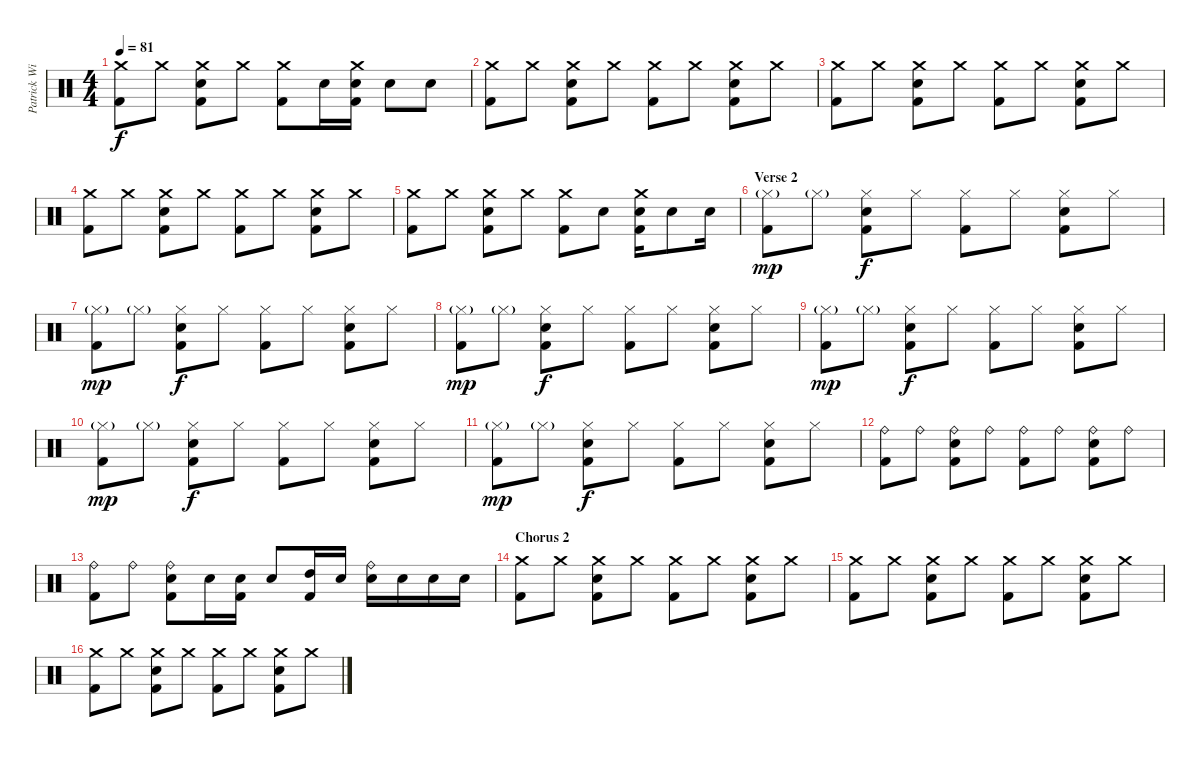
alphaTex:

\track ("Patrick Wilson" "Patrick Wi") {instrument percussion}
\staff {score}
\articulation defaults
\ts (4 4)
\tempo 81
\clef neutral
\ks c
("Crash medium (hit)" "Kick (hit) 2").8{dy f} "Crash medium (hit)".8 ("Crash medium (hit)" "Electric Snare (hit)" "Kick (hit) 2").8 "Crash medium (hit)".8 ("Crash medium (hit)" "Kick (hit) 2").8 "Electric Snare (hit)".16 ("Crash medium (hit)" "Electric Snare (hit)" "Kick (hit) 2").16 "Electric Snare (hit)".8 "Electric Snare (hit)".8 |
("Crash medium (hit)" "Kick (hit) 2").8 "Crash medium (hit)".8 ("Crash medium (hit)" "Electric Snare (hit)" "Kick (hit) 2").8 "Crash medium (hit)".8 ("Crash medium (hit)" "Kick (hit) 2").8 "Crash medium (hit)".8 ("Crash medium (hit)" "Electric Snare (hit)" "Kick (hit) 2").8 "Crash medium (hit)".8 |
("Crash medium (hit)" "Kick (hit) 2").8 "Crash medium (hit)".8 ("Crash medium (hit)" "Electric Snare (hit)" "Kick (hit) 2").8 "Crash medium (hit)".8 ("Crash medium (hit)" "Kick (hit) 2").8 "Crash medium (hit)".8 ("Crash medium (hit)" "Electric Snare (hit)" "Kick (hit) 2").8 "Crash medium (hit)".8 |
("Crash medium (hit)" "Kick (hit) 2").8 "Crash medium (hit)".8 ("Crash medium (hit)" "Electric Snare (hit)" "Kick (hit) 2").8 "Crash medium (hit)".8 ("Crash medium (hit)" "Kick (hit) 2").8 "Crash medium (hit)".8 ("Crash medium (hit)" "Electric Snare (hit)" "Kick (hit) 2").8 "Crash medium (hit)".8 |
("Crash medium (hit)" "Kick (hit) 2").8 "Crash medium (hit)".8 ("Crash medium (hit)" "Electric Snare (hit)" "Kick (hit) 2").8 "Crash medium (hit)".8 ("Crash medium (hit)" "Kick (hit) 2").8 "Electric Snare (hit)".8 ("Crash medium (hit)" "Electric Snare (hit)" "Kick (hit) 2").16 "Electric Snare (hit)".8 "Electric Snare (hit)".16 |
\section ("" "Verse 2")
("Hi-Hat (closed)"{g} "Kick (hit) 2").8{dy mp} "Hi-Hat (closed)"{g}.8 ("Hi-Hat (closed)" "Electric Snare (hit)" "Kick (hit) 2").8{dy f} "Hi-Hat (closed)".8 ("Hi-Hat (closed)" "Kick (hit) 2").8 "Hi-Hat (closed)".8 ("Hi-Hat (closed)" "Electric Snare (hit)" "Kick (hit) 2").8 "Hi-Hat (closed)".8 |
("Hi-Hat (closed)"{g} "Kick (hit) 2").8{dy mp} "Hi-Hat (closed)"{g}.8 ("Hi-Hat (closed)" "Electric Snare (hit)" "Kick (hit) 2").8{dy f} "Hi-Hat (closed)".8 ("Hi-Hat (closed)" "Kick (hit) 2").8 "Hi-Hat (closed)".8 ("Hi-Hat (closed)" "Electric Snare (hit)" "Kick (hit) 2").8 "Hi-Hat (closed)".8 |
("Hi-Hat (closed)"{g} "Kick (hit) 2").8{dy mp} "Hi-Hat (closed)"{g}.8 ("Hi-Hat (closed)" "Electric Snare (hit)" "Kick (hit) 2").8{dy f} "Hi-Hat (closed)".8 ("Hi-Hat (closed)" "Kick (hit) 2").8 "Hi-Hat (closed)".8 ("Hi-Hat (closed)" "Electric Snare (hit)" "Kick (hit) 2").8 "Hi-Hat (closed)".8 |
("Hi-Hat (closed)"{g} "Kick (hit) 2").8{dy mp} "Hi-Hat (closed)"{g}.8 ("Hi-Hat (closed)" "Electric Snare (hit)" "Kick (hit) 2").8{dy f} "Hi-Hat (closed)".8 ("Hi-Hat (closed)" "Kick (hit) 2").8 "Hi-Hat (closed)".8 ("Hi-Hat (closed)" "Electric Snare (hit)" "Kick (hit) 2").8 "Hi-Hat (closed)".8 |
("Hi-Hat (closed)"{g} "Kick (hit) 2").8{dy mp} "Hi-Hat (closed)"{g}.8 ("Hi-Hat (closed)" "Electric Snare (hit)" "Kick (hit) 2").8{dy f} "Hi-Hat (closed)".8 ("Hi-Hat (closed)" "Kick (hit) 2").8 "Hi-Hat (closed)".8 ("Hi-Hat (closed)" "Electric Snare (hit)" "Kick (hit) 2").8 "Hi-Hat (closed)".8 |
("Hi-Hat (closed)"{g} "Kick (hit) 2").8{dy mp} "Hi-Hat (closed)"{g}.8 ("Hi-Hat (closed)" "Electric Snare (hit)" "Kick (hit) 2").8{dy f} "Hi-Hat (closed)".8 ("Hi-Hat (closed)" "Kick (hit) 2").8 "Hi-Hat (closed)".8 ("Hi-Hat (closed)" "Electric Snare (hit)" "Kick (hit) 2").8 "Hi-Hat (closed)".8 |
("Ride (bell)" "Kick (hit) 2").8 "Ride (bell)".8 ("Ride (bell)" "Electric Snare (hit)" "Kick (hit) 2").8 "Ride (bell)".8 ("Ride (bell)" "Kick (hit) 2").8 "Ride (bell)".8 ("Ride (bell)" "Electric Snare (hit)" "Kick (hit) 2").8 "Ride (bell)".8 |
("Ride (bell)" "Kick (hit) 2").8 "Ride (bell)".8 ("Ride (bell)" "Electric Snare (hit)" "Kick (hit) 2").8 "Electric Snare (hit)".16 ("Electric Snare (hit)" "Kick (hit) 2").16 "Electric Snare (hit)".8 ("High Tom (hit)" "Kick (hit) 2").16 "Electric Snare (hit)".16 ("Ride (bell)" "Electric Snare (hit)").16 "Electric Snare (hit)".16 "Electric Snare (hit)".16 "Electric Snare (hit)".16 |
\section ("" "Chorus 2")
("Crash medium (hit)" "Kick (hit) 2").8 "Crash medium (hit)".8 ("Crash medium (hit)" "Electric Snare (hit)" "Kick (hit) 2").8 "Crash medium (hit)".8 ("Crash medium (hit)" "Kick (hit) 2").8 "Crash medium (hit)".8 ("Crash medium (hit)" "Electric Snare (hit)" "Kick (hit) 2").8 "Crash medium (hit)".8 |
("Crash medium (hit)" "Kick (hit) 2").8 "Crash medium (hit)".8 ("Crash medium (hit)" "Electric Snare (hit)" "Kick (hit) 2").8 "Crash medium (hit)".8 ("Crash medium (hit)" "Kick (hit) 2").8 "Crash medium (hit)".8 ("Crash medium (hit)" "Electric Snare (hit)" "Kick (hit) 2").8 "Crash medium (hit)".8 |
("Crash medium (hit)" "Kick (hit) 2").8 "Crash medium (hit)".8 ("Crash medium (hit)" "Electric Snare (hit)" "Kick (hit) 2").8 "Crash medium (hit)".8 ("Crash medium (hit)" "Kick (hit) 2").8 "Crash medium (hit)".8 ("Crash medium (hit)" "Electric Snare (hit)" "Kick (hit) 2").8 "Crash medium (hit)".8
